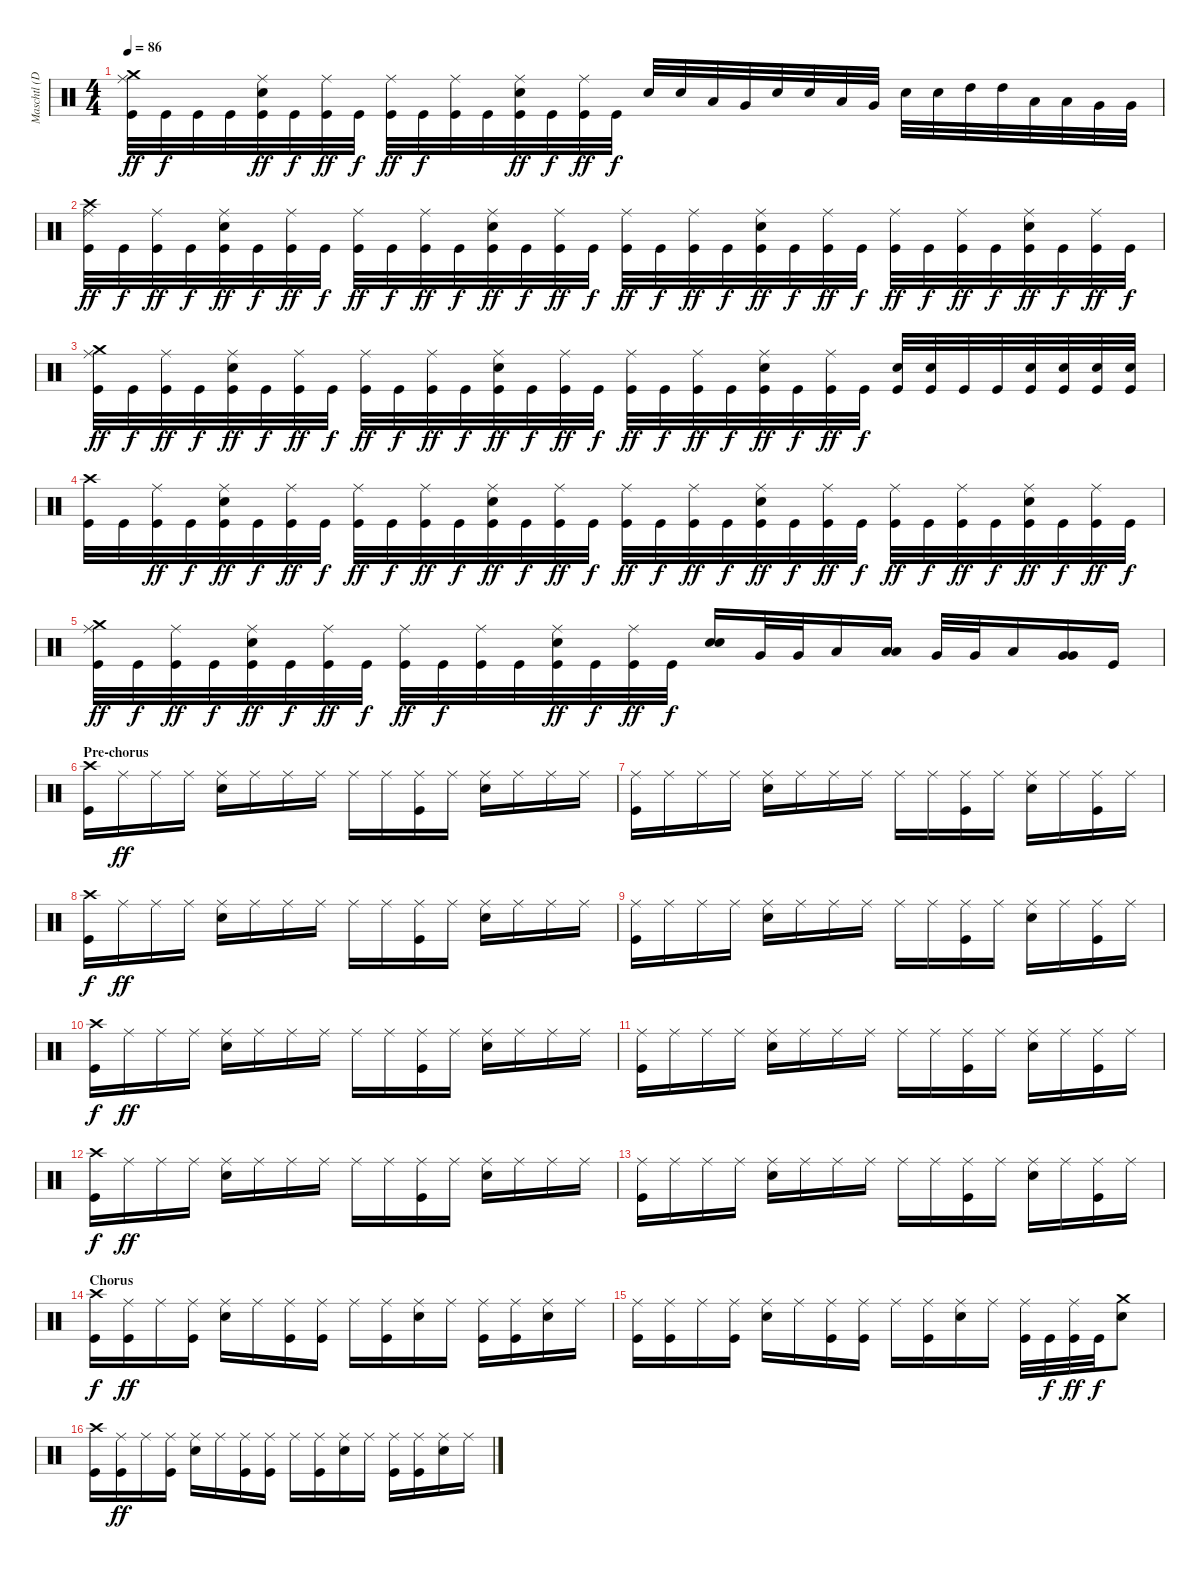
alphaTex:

\track ("Maschtl (Drums)" "Maschtl (D") {instrument percussion}
\staff {score}
\articulation defaults
\ts (4 4)
\tempo 86
\clef neutral
\ks c
("Crash medium (hit)" "Ride (middle)" "Kick (hit)").32{dy ff} "Kick (hit)".32{dy f} "Kick (hit)".32 "Kick (hit)".32 ("Ride (middle)" "Electric Snare (hit)" "Kick (hit)").32{dy ff} "Kick (hit)".32{dy f} ("Ride (middle)" "Kick (hit)").32{dy ff} "Kick (hit)".32{dy f} ("Ride (middle)" "Kick (hit)").32{dy ff} "Kick (hit)".32{dy f} ("Ride (middle)" "Kick (hit)").32 "Kick (hit)".32 ("Ride (middle)" "Electric Snare (hit)" "Kick (hit)").32{dy ff} "Kick (hit)".32{dy f} ("Ride (middle)" "Kick (hit)").32{dy ff} "Kick (hit)".32{dy f} "Electric Snare (hit)".32 "Electric Snare (hit)".32 "Low Tom (hit)".32 "Very Low Tom (hit)".32 "Electric Snare (hit)".32 "Electric Snare (hit)".32 "Low Tom (hit)".32 "Very Low Tom (hit)".32 "Electric Snare (hit)".32 "Electric Snare (hit)".32 "High Tom (hit)".32 "High Tom (hit)".32 "Low Tom (hit)".32 "Low Tom (hit)".32 "Very Low Tom (hit)".32 "Very Low Tom (hit)".32 |
("Crash high (hit)" "Ride (middle)" "Kick (hit)").32{dy ff} "Kick (hit)".32{dy f} ("Ride (middle)" "Kick (hit)").32{dy ff} "Kick (hit)".32{dy f} ("Ride (middle)" "Electric Snare (hit)" "Kick (hit)").32{dy ff} "Kick (hit)".32{dy f} ("Ride (middle)" "Kick (hit)").32{dy ff} "Kick (hit)".32{dy f} ("Ride (middle)" "Kick (hit)").32{dy ff} "Kick (hit)".32{dy f} ("Ride (middle)" "Kick (hit)").32{dy ff} "Kick (hit)".32{dy f} ("Ride (middle)" "Electric Snare (hit)" "Kick (hit)").32{dy ff} "Kick (hit)".32{dy f} ("Ride (middle)" "Kick (hit)").32{dy ff} "Kick (hit)".32{dy f} ("Ride (middle)" "Kick (hit)").32{dy ff} "Kick (hit)".32{dy f} ("Ride (middle)" "Kick (hit)").32{dy ff} "Kick (hit)".32{dy f} ("Ride (middle)" "Electric Snare (hit)" "Kick (hit)").32{dy ff} "Kick (hit)".32{dy f} ("Ride (middle)" "Kick (hit)").32{dy ff} "Kick (hit)".32{dy f} ("Ride (middle)" "Kick (hit)").32{dy ff} "Kick (hit)".32{dy f} ("Ride (middle)" "Kick (hit)").32{dy ff} "Kick (hit)".32{dy f} ("Ride (middle)" "Electric Snare (hit)" "Kick (hit)").32{dy ff} "Kick (hit)".32{dy f} ("Ride (middle)" "Kick (hit)").32{dy ff} "Kick (hit)".32{dy f} |
("Crash medium (hit)" "Ride (middle)" "Kick (hit)").32{dy ff} "Kick (hit)".32{dy f} ("Ride (middle)" "Kick (hit)").32{dy ff} "Kick (hit)".32{dy f} ("Ride (middle)" "Electric Snare (hit)" "Kick (hit)").32{dy ff} "Kick (hit)".32{dy f} ("Ride (middle)" "Kick (hit)").32{dy ff} "Kick (hit)".32{dy f} ("Ride (middle)" "Kick (hit)").32{dy ff} "Kick (hit)".32{dy f} ("Ride (middle)" "Kick (hit)").32{dy ff} "Kick (hit)".32{dy f} ("Ride (middle)" "Electric Snare (hit)" "Kick (hit)").32{dy ff} "Kick (hit)".32{dy f} ("Ride (middle)" "Kick (hit)").32{dy ff} "Kick (hit)".32{dy f} ("Ride (middle)" "Kick (hit)").32{dy ff} "Kick (hit)".32{dy f} ("Ride (middle)" "Kick (hit)").32{dy ff} "Kick (hit)".32{dy f} ("Ride (middle)" "Electric Snare (hit)" "Kick (hit)").32{dy ff} "Kick (hit)".32{dy f} ("Ride (middle)" "Kick (hit)").32{dy ff} "Kick (hit)".32{dy f} ("Electric Snare (hit)" "Kick (hit)").32 ("Electric Snare (hit)" "Kick (hit)").32 "Kick (hit)".32 "Kick (hit)".32 ("Electric Snare (hit)" "Kick (hit)").32 ("Electric Snare (hit)" "Kick (hit)").32 ("Electric Snare (hit)" "Kick (hit)").32 ("Electric Snare (hit)" "Kick (hit)").32 |
("Crash high (hit)" "Kick (hit)").32 "Kick (hit)".32 ("Ride (middle)" "Kick (hit)").32{dy ff} "Kick (hit)".32{dy f} ("Ride (middle)" "Electric Snare (hit)" "Kick (hit)").32{dy ff} "Kick (hit)".32{dy f} ("Ride (middle)" "Kick (hit)").32{dy ff} "Kick (hit)".32{dy f} ("Ride (middle)" "Kick (hit)").32{dy ff} "Kick (hit)".32{dy f} ("Ride (middle)" "Kick (hit)").32{dy ff} "Kick (hit)".32{dy f} ("Ride (middle)" "Electric Snare (hit)" "Kick (hit)").32{dy ff} "Kick (hit)".32{dy f} ("Ride (middle)" "Kick (hit)").32{dy ff} "Kick (hit)".32{dy f} ("Ride (middle)" "Kick (hit)").32{dy ff} "Kick (hit)".32{dy f} ("Ride (middle)" "Kick (hit)").32{dy ff} "Kick (hit)".32{dy f} ("Ride (middle)" "Electric Snare (hit)" "Kick (hit)").32{dy ff} "Kick (hit)".32{dy f} ("Ride (middle)" "Kick (hit)").32{dy ff} "Kick (hit)".32{dy f} ("Ride (middle)" "Kick (hit)").32{dy ff} "Kick (hit)".32{dy f} ("Ride (middle)" "Kick (hit)").32{dy ff} "Kick (hit)".32{dy f} ("Ride (middle)" "Electric Snare (hit)" "Kick (hit)").32{dy ff} "Kick (hit)".32{dy f} ("Ride (middle)" "Kick (hit)").32{dy ff} "Kick (hit)".32{dy f} |
("Crash medium (hit)" "Ride (middle)" "Kick (hit)").32{dy ff} "Kick (hit)".32{dy f} ("Ride (middle)" "Kick (hit)").32{dy ff} "Kick (hit)".32{dy f} ("Ride (middle)" "Electric Snare (hit)" "Kick (hit)").32{dy ff} "Kick (hit)".32{dy f} ("Ride (middle)" "Kick (hit)").32{dy ff} "Kick (hit)".32{dy f} ("Ride (middle)" "Kick (hit)").32{dy ff} "Kick (hit)".32{dy f} ("Ride (middle)" "Kick (hit)").32 "Kick (hit)".32 ("Ride (middle)" "Electric Snare (hit)" "Kick (hit)").32{dy ff} "Kick (hit)".32{dy f} ("Ride (middle)" "Kick (hit)").32{dy ff} "Kick (hit)".32{dy f} ("Electric Snare (hit)" "Electric Snare (hit)").16{bu 120} "Very Low Tom (hit)".32 "Very Low Tom (hit)".32 "Low Floor Tom (hit)".16 ("Low Tom (hit)" "Low Tom (hit)").16{bu 120} "Very Low Tom (hit)".32 "Very Low Tom (hit)".32 "Low Floor Tom (hit)".16 ("Very Low Tom (hit)" "Very Low Tom (hit)").16{bu 120} "Kick (hit)".16 |
\section ("" "Pre-chorus")
("Crash high (hit)" "Kick (hit)").16 "Ride (middle)".16{dy ff} "Ride (middle)".16 "Ride (middle)".16 ("Ride (middle)" "Electric Snare (hit)").16 "Ride (middle)".16 "Ride (middle)".16 "Ride (middle)".16 "Ride (middle)".16 "Ride (middle)".16 ("Ride (middle)" "Kick (hit)").16 "Ride (middle)".16 ("Ride (middle)" "Electric Snare (hit)").16 "Ride (middle)".16 "Ride (middle)".16 "Ride (middle)".16 |
("Ride (middle)" "Kick (hit)").16 "Ride (middle)".16 "Ride (middle)".16 "Ride (middle)".16 ("Ride (middle)" "Electric Snare (hit)").16 "Ride (middle)".16 "Ride (middle)".16 "Ride (middle)".16 "Ride (middle)".16 "Ride (middle)".16 ("Ride (middle)" "Kick (hit)").16 "Ride (middle)".16 ("Ride (middle)" "Electric Snare (hit)").16 "Ride (middle)".16 ("Ride (middle)" "Kick (hit)").16 "Ride (middle)".16 |
("Crash high (hit)" "Kick (hit)").16{dy f} "Ride (middle)".16{dy ff} "Ride (middle)".16 "Ride (middle)".16 ("Ride (middle)" "Electric Snare (hit)").16 "Ride (middle)".16 "Ride (middle)".16 "Ride (middle)".16 "Ride (middle)".16 "Ride (middle)".16 ("Ride (middle)" "Kick (hit)").16 "Ride (middle)".16 ("Ride (middle)" "Electric Snare (hit)").16 "Ride (middle)".16 "Ride (middle)".16 "Ride (middle)".16 |
("Ride (middle)" "Kick (hit)").16 "Ride (middle)".16 "Ride (middle)".16 "Ride (middle)".16 ("Ride (middle)" "Electric Snare (hit)").16 "Ride (middle)".16 "Ride (middle)".16 "Ride (middle)".16 "Ride (middle)".16 "Ride (middle)".16 ("Ride (middle)" "Kick (hit)").16 "Ride (middle)".16 ("Ride (middle)" "Electric Snare (hit)").16 "Ride (middle)".16 ("Ride (middle)" "Kick (hit)").16 "Ride (middle)".16 |
("Crash high (hit)" "Kick (hit)").16{dy f} "Ride (middle)".16{dy ff} "Ride (middle)".16 "Ride (middle)".16 ("Ride (middle)" "Electric Snare (hit)").16 "Ride (middle)".16 "Ride (middle)".16 "Ride (middle)".16 "Ride (middle)".16 "Ride (middle)".16 ("Ride (middle)" "Kick (hit)").16 "Ride (middle)".16 ("Ride (middle)" "Electric Snare (hit)").16 "Ride (middle)".16 "Ride (middle)".16 "Ride (middle)".16 |
("Ride (middle)" "Kick (hit)").16 "Ride (middle)".16 "Ride (middle)".16 "Ride (middle)".16 ("Ride (middle)" "Electric Snare (hit)").16 "Ride (middle)".16 "Ride (middle)".16 "Ride (middle)".16 "Ride (middle)".16 "Ride (middle)".16 ("Ride (middle)" "Kick (hit)").16 "Ride (middle)".16 ("Ride (middle)" "Electric Snare (hit)").16 "Ride (middle)".16 ("Ride (middle)" "Kick (hit)").16 "Ride (middle)".16 |
("Crash high (hit)" "Kick (hit)").16{dy f} "Ride (middle)".16{dy ff} "Ride (middle)".16 "Ride (middle)".16 ("Ride (middle)" "Electric Snare (hit)").16 "Ride (middle)".16 "Ride (middle)".16 "Ride (middle)".16 "Ride (middle)".16 "Ride (middle)".16 ("Ride (middle)" "Kick (hit)").16 "Ride (middle)".16 ("Ride (middle)" "Electric Snare (hit)").16 "Ride (middle)".16 "Ride (middle)".16 "Ride (middle)".16 |
("Ride (middle)" "Kick (hit)").16 "Ride (middle)".16 "Ride (middle)".16 "Ride (middle)".16 ("Ride (middle)" "Electric Snare (hit)").16 "Ride (middle)".16 "Ride (middle)".16 "Ride (middle)".16 "Ride (middle)".16 "Ride (middle)".16 ("Ride (middle)" "Kick (hit)").16 "Ride (middle)".16 ("Ride (middle)" "Electric Snare (hit)").16 "Ride (middle)".16 ("Ride (middle)" "Kick (hit)").16 "Ride (middle)".16 |
\section ("" "Chorus")
("Crash high (hit)" "Kick (hit)").16{dy f} ("Ride (middle)" "Kick (hit)").16{dy ff} "Ride (middle)".16 ("Ride (middle)" "Kick (hit)").16 ("Ride (middle)" "Electric Snare (hit)").16 "Ride (middle)".16 ("Ride (middle)" "Kick (hit)").16 ("Ride (middle)" "Kick (hit)").16 "Ride (middle)".16 ("Ride (middle)" "Kick (hit)").16 ("Ride (middle)" "Electric Snare (hit)").16 "Ride (middle)".16 ("Ride (middle)" "Kick (hit)").16 ("Ride (middle)" "Kick (hit)").16 ("Ride (middle)" "Electric Snare (hit)").16 "Ride (middle)".16 |
("Ride (middle)" "Kick (hit)").16 ("Ride (middle)" "Kick (hit)").16 "Ride (middle)".16 ("Ride (middle)" "Kick (hit)").16 ("Ride (middle)" "Electric Snare (hit)").16 "Ride (middle)".16 ("Ride (middle)" "Kick (hit)").16 ("Ride (middle)" "Kick (hit)").16 "Ride (middle)".16 ("Ride (middle)" "Kick (hit)").16 ("Ride (middle)" "Electric Snare (hit)").16 "Ride (middle)".16 ("Ride (middle)" "Kick (hit)").32 "Kick (hit)".32{dy f} ("Ride (middle)" "Kick (hit)").32{dy ff} "Kick (hit)".32{dy f} ("Crash medium (hit)" "Electric Snare (hit)").8 |
("Crash high (hit)" "Kick (hit)").16 ("Ride (middle)" "Kick (hit)").16{dy ff} "Ride (middle)".16 ("Ride (middle)" "Kick (hit)").16 ("Ride (middle)" "Electric Snare (hit)").16 "Ride (middle)".16 ("Ride (middle)" "Kick (hit)").16 ("Ride (middle)" "Kick (hit)").16 "Ride (middle)".16 ("Ride (middle)" "Kick (hit)").16 ("Ride (middle)" "Electric Snare (hit)").16 "Ride (middle)".16 ("Ride (middle)" "Kick (hit)").16 ("Ride (middle)" "Kick (hit)").16 ("Ride (middle)" "Electric Snare (hit)").16 "Ride (middle)".16
